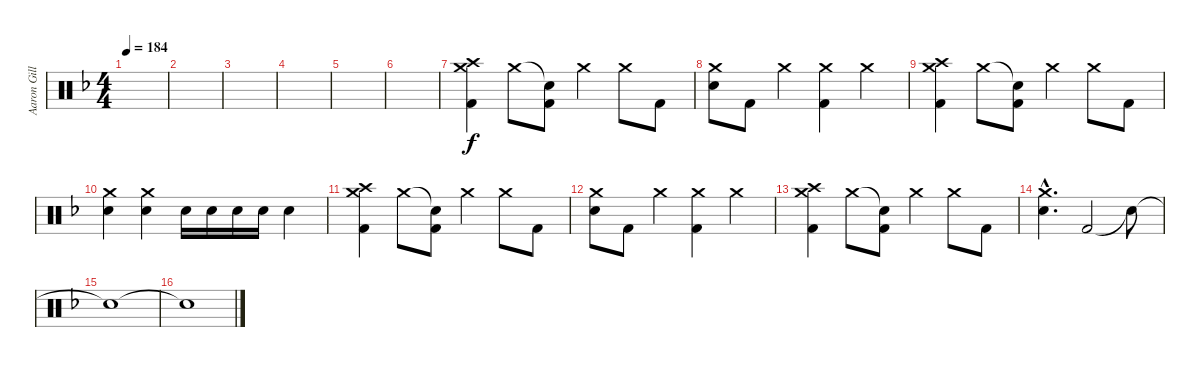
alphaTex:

\track ("Aaron Gillespie" "Aaron Gill") {instrument percussion}
\staff {score}
\articulation defaults
\ts (4 4)
\tempo 184
\clef neutral
\ks dminor
|
|
|
|
|
|
("Crash medium (hit)" "Crash high (hit)" "Kick (hit) 2").4 "Crash medium (hit)".8 ("Snare (hit)"{t} "Kick (hit) 2").8 "Crash medium (hit)".4 "Crash medium (hit)".8 "Kick (hit) 2".8 |
("Crash medium (hit)" "Snare (hit) 2").8 "Kick (hit) 2".8 "Crash medium (hit)".4 ("Crash medium (hit)" "Kick (hit) 2").4 "Crash medium (hit)".4 |
("Crash medium (hit)" "Crash high (hit)" "Kick (hit) 2").4 "Crash medium (hit)".8 ("Snare (hit)"{t} "Kick (hit) 2").8 "Crash medium (hit)".4 "Crash medium (hit)".8 "Kick (hit) 2".8 |
("Crash medium (hit)" "Snare (hit) 2").4 ("Crash medium (hit)" "Snare (hit) 2").4 "Snare (hit) 2".16 "Snare (hit) 2".16 "Snare (hit) 2".16 "Snare (hit) 2".16 "Snare (hit) 2".4 |
("Crash medium (hit)" "Crash high (hit)" "Kick (hit) 2").4 "Crash medium (hit)".8 ("Snare (hit)"{t} "Kick (hit) 2").8 "Crash medium (hit)".4 "Crash medium (hit)".8 "Kick (hit) 2".8 |
("Crash medium (hit)" "Snare (hit) 2").8 "Kick (hit) 2".8 "Crash medium (hit)".4 ("Crash medium (hit)" "Kick (hit) 2").4 "Crash medium (hit)".4 |
("Crash medium (hit)" "Crash high (hit)" "Kick (hit) 2").4 "Crash medium (hit)".8 ("Snare (hit)"{t} "Kick (hit) 2").8 "Crash medium (hit)".4 "Crash medium (hit)".8 "Kick (hit) 2".8 |
("Crash medium (hit)"{hac} "Snare (hit) 2"{hac}).4{d} "Kick (hit) 2".2 "Snare (hit)"{t}.8 |
"Snare (hit)"{t}.1 |
"Snare (hit)"{t}.1
